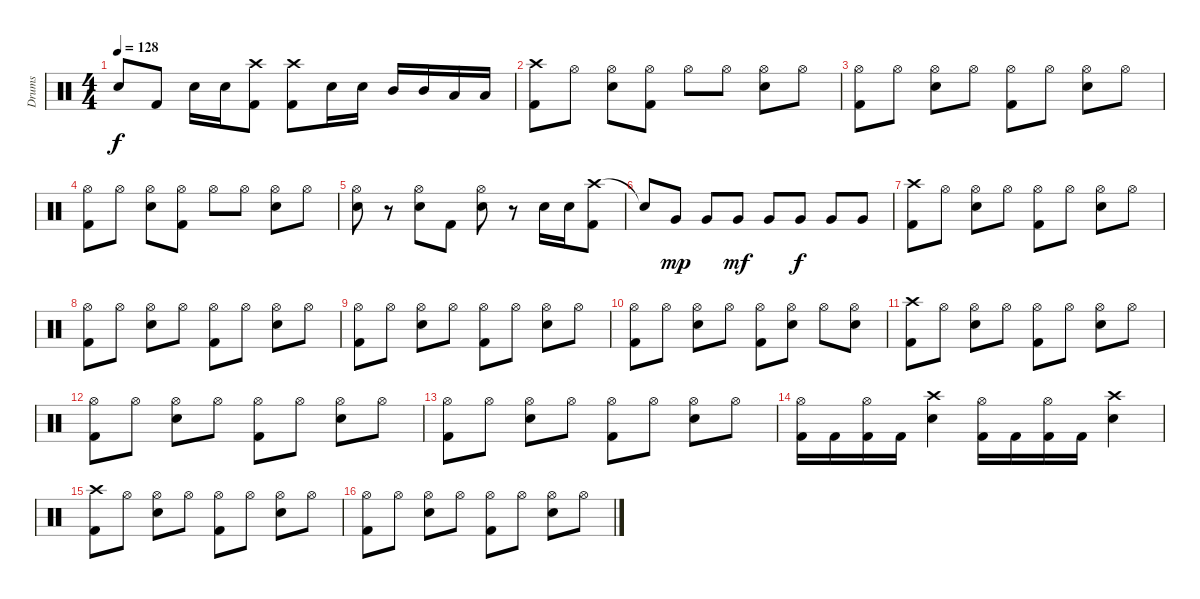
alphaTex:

\track ("Drums" "Drums") {instrument percussion}
\staff {score}
\articulation defaults
\ts (4 4)
\tempo 128
\clef neutral
\ks c "Snare (hit) 2".8{dy f} "Kick (hit) 2".8 "Snare (hit) 2".16 "Snare (hit) 2".16
("Crash high (hit)" "Kick (hit) 2").8 ("Crash high (hit)" "Kick (hit) 2").8 "Snare (hit) 2".16 "Snare (hit) 2".16 "Mid Tom (hit)".16 "Mid Tom (hit)".16 "Low Tom (hit)".16 "Low Tom (hit)".16 |
("Crash high (hit)" "Kick (hit) 2").8 "Hi-Hat (open)".8 ("Hi-Hat (open)" "Snare (hit) 2").8 ("Hi-Hat (open)" "Kick (hit) 2").8 "Hi-Hat (open)".8 "Hi-Hat (open)".8 ("Hi-Hat (open)" "Snare (hit) 2").8 "Hi-Hat (open)".8 |
("Hi-Hat (open)" "Kick (hit) 2").8 "Hi-Hat (open)".8 ("Hi-Hat (open)" "Snare (hit) 2").8 "Hi-Hat (open)".8 ("Hi-Hat (open)" "Kick (hit) 2").8 "Hi-Hat (open)".8 ("Hi-Hat (open)" "Snare (hit) 2").8 "Hi-Hat (open)".8 |
("Hi-Hat (open)" "Kick (hit) 2").8 "Hi-Hat (open)".8 ("Hi-Hat (open)" "Snare (hit) 2").8 ("Hi-Hat (open)" "Kick (hit) 2").8 "Hi-Hat (open)".8 "Hi-Hat (open)".8 ("Hi-Hat (open)" "Snare (hit) 2").8 "Hi-Hat (open)".8 |
("Hi-Hat (open)" "Snare (hit) 2").8 r.8 ("Hi-Hat (open)" "Snare (hit) 2").8 "Kick (hit) 2".8 ("Hi-Hat (open)" "Snare (hit) 2").8 r.8 "Snare (hit) 2".16 "Snare (hit) 2".16 ("Crash high (hit)" "Kick (hit) 2").8 |
"Snare (hit)"{t}.8 "Very Low Tom (hit)".8{dy mp} "Very Low Tom (hit)".8 "Very Low Tom (hit)".8{dy mf} "Very Low Tom (hit)".8 "Very Low Tom (hit)".8{dy f} "Very Low Tom (hit)".8 "Very Low Tom (hit)".8 |
("Crash high (hit)" "Kick (hit) 2").8 "Hi-Hat (open)".8 ("Hi-Hat (open)" "Snare (hit) 2").8 "Hi-Hat (open)".8 ("Hi-Hat (open)" "Kick (hit) 2").8 "Hi-Hat (open)".8 ("Hi-Hat (open)" "Snare (hit) 2").8 "Hi-Hat (open)".8 |
("Hi-Hat (open)" "Kick (hit) 2").8 "Hi-Hat (open)".8 ("Hi-Hat (open)" "Snare (hit) 2").8 "Hi-Hat (open)".8 ("Hi-Hat (open)" "Kick (hit) 2").8 "Hi-Hat (open)".8 ("Hi-Hat (open)" "Snare (hit) 2").8 "Hi-Hat (open)".8 |
("Hi-Hat (open)" "Kick (hit) 2").8 "Hi-Hat (open)".8 ("Hi-Hat (open)" "Snare (hit) 2").8 "Hi-Hat (open)".8 ("Hi-Hat (open)" "Kick (hit) 2").8 "Hi-Hat (open)".8 ("Hi-Hat (open)" "Snare (hit) 2").8 "Hi-Hat (open)".8 |
("Hi-Hat (open)" "Kick (hit) 2").8 "Hi-Hat (open)".8 ("Hi-Hat (open)" "Snare (hit) 2").8 "Hi-Hat (open)".8 ("Hi-Hat (open)" "Kick (hit) 2").8 ("Hi-Hat (open)" "Snare (hit) 2").8 "Hi-Hat (open)".8 ("Hi-Hat (open)" "Snare (hit) 2").8 |
("Crash high (hit)" "Kick (hit) 2").8 "Hi-Hat (open)".8 ("Hi-Hat (open)" "Snare (hit) 2").8 "Hi-Hat (open)".8 ("Hi-Hat (open)" "Kick (hit) 2").8 "Hi-Hat (open)".8 ("Hi-Hat (open)" "Snare (hit) 2").8 "Hi-Hat (open)".8 |
("Hi-Hat (open)" "Kick (hit) 2").8 "Hi-Hat (open)".8 ("Hi-Hat (open)" "Snare (hit) 2").8 "Hi-Hat (open)".8 ("Hi-Hat (open)" "Kick (hit) 2").8 "Hi-Hat (open)".8 ("Hi-Hat (open)" "Snare (hit) 2").8 "Hi-Hat (open)".8 |
("Hi-Hat (open)" "Kick (hit) 2").8 "Hi-Hat (open)".8 ("Hi-Hat (open)" "Snare (hit) 2").8 "Hi-Hat (open)".8 ("Hi-Hat (open)" "Kick (hit) 2").8 "Hi-Hat (open)".8 ("Hi-Hat (open)" "Snare (hit) 2").8 "Hi-Hat (open)".8 |
("Hi-Hat (open)" "Kick (hit) 2").16 "Kick (hit) 2".16 ("Hi-Hat (open)" "Kick (hit) 2").16 "Kick (hit) 2".16 ("Crash high (hit)" "Snare (hit) 2").4 ("Hi-Hat (open)" "Kick (hit) 2").16 "Kick (hit) 2".16 ("Hi-Hat (open)" "Kick (hit) 2").16 "Kick (hit) 2".16 ("Crash high (hit)" "Snare (hit) 2").4 |
("Crash high (hit)" "Kick (hit) 2").8 "Hi-Hat (open)".8 ("Hi-Hat (open)" "Snare (hit) 2").8 "Hi-Hat (open)".8 ("Hi-Hat (open)" "Kick (hit) 2").8 "Hi-Hat (open)".8 ("Hi-Hat (open)" "Snare (hit) 2").8 "Hi-Hat (open)".8 |
("Hi-Hat (open)" "Kick (hit) 2").8 "Hi-Hat (open)".8 ("Hi-Hat (open)" "Snare (hit) 2").8 "Hi-Hat (open)".8 ("Hi-Hat (open)" "Kick (hit) 2").8 "Hi-Hat (open)".8 ("Hi-Hat (open)" "Snare (hit) 2").8 "Hi-Hat (open)".8
